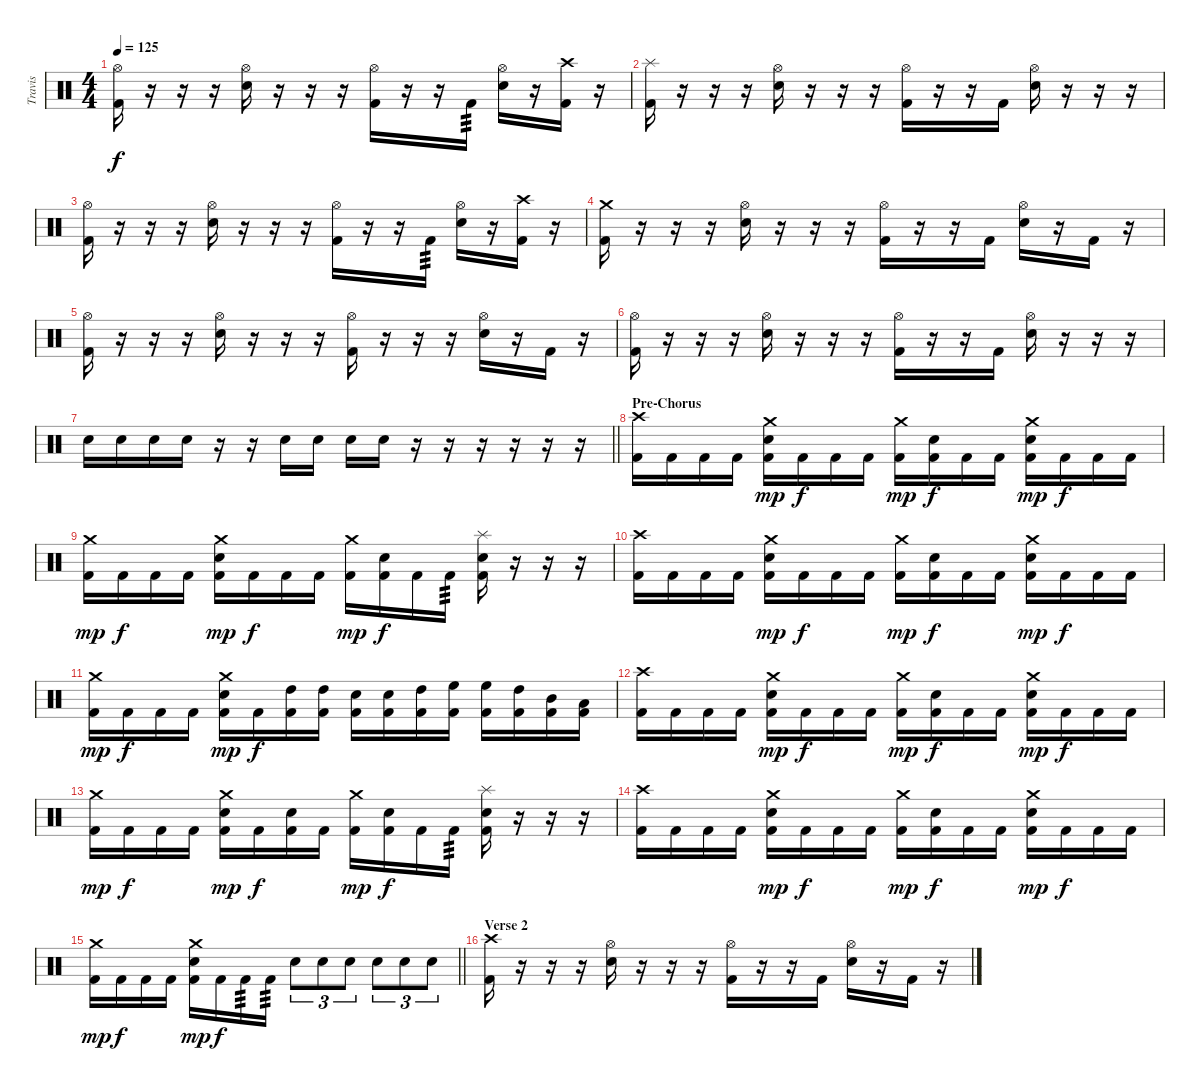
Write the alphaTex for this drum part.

\track ("Travis" "Travis") {instrument percussion}
\staff {score}
\articulation defaults
\ts (4 4)
\tempo 125
\clef neutral
\ks c
("Kick (hit) 2" "Hi-Hat (open)").16{dy f} r.16 r.16 r.16 ("Electric Snare (hit)" "Hi-Hat (open)").16 r.16 r.16 r.16 ("Kick (hit) 2" "Hi-Hat (open)").16 r.16 r.16 "Kick (hit) 2".16{tp 3} ("Electric Snare (hit)" "Hi-Hat (open)").16 r.16 ("Kick (hit) 2" "Crash high (hit)").16 r.16 |
("Splash (hit)" "Kick (hit) 2").16 r.16 r.16 r.16 ("Electric Snare (hit)" "Hi-Hat (open)").16 r.16 r.16 r.16 ("Kick (hit) 2" "Hi-Hat (open)").16 r.16 r.16 "Kick (hit) 2".16 ("Electric Snare (hit)" "Hi-Hat (open)").16 r.16 r.16 r.16 |
("Kick (hit) 2" "Hi-Hat (open)").16 r.16 r.16 r.16 ("Electric Snare (hit)" "Hi-Hat (open)").16 r.16 r.16 r.16 ("Kick (hit) 2" "Hi-Hat (open)").16 r.16 r.16 "Kick (hit) 2".16{tp 3} ("Electric Snare (hit)" "Hi-Hat (open)").16 r.16 ("Kick (hit) 2" "Crash high (hit)").16 r.16 |
("Kick (hit) 2" "Crash medium (hit)").16 r.16 r.16 r.16 ("Electric Snare (hit)" "Hi-Hat (open)").16 r.16 r.16 r.16 ("Kick (hit) 2" "Hi-Hat (open)").16 r.16 r.16 "Kick (hit) 2".16 ("Electric Snare (hit)" "Hi-Hat (open)").16 r.16 "Kick (hit) 2".16 r.16 |
("Kick (hit) 2" "Hi-Hat (open)").16 r.16 r.16 r.16 ("Electric Snare (hit)" "Hi-Hat (open)").16 r.16 r.16 r.16 ("Kick (hit) 2" "Hi-Hat (open)").16 r.16 r.16 r.16 ("Electric Snare (hit)" "Hi-Hat (open)").16 r.16 "Kick (hit) 2".16 r.16 |
("Kick (hit) 2" "Hi-Hat (open)").16 r.16 r.16 r.16 ("Electric Snare (hit)" "Hi-Hat (open)").16 r.16 r.16 r.16 ("Kick (hit) 2" "Hi-Hat (open)").16 r.16 r.16 "Kick (hit) 2".16 ("Electric Snare (hit)" "Hi-Hat (open)").16 r.16 r.16 r.16 |
\barLineRight lightlight "Electric Snare (hit)".16 "Electric Snare (hit)".16 "Electric Snare (hit)".16 "Electric Snare (hit)".16
r.16 r.16 "Electric Snare (hit)".16 "Electric Snare (hit)".16 "Electric Snare (hit)".16 "Electric Snare (hit)".16 r.16 r.16 r.16 r.16 r.16 r.16 |
\section ("" "Pre-Chorus")
("Crash high (hit)" "Kick (hit) 2").16 "Kick (hit) 2".16 "Kick (hit) 2".16 "Kick (hit) 2".16 ("Crash medium (hit)" "Electric Snare (hit)" "Kick (hit) 2").16{dy mp} "Kick (hit) 2".16{dy f} "Kick (hit) 2".16 "Kick (hit) 2".16 ("Crash medium (hit)" "Kick (hit) 2").16{dy mp} ("Electric Snare (hit)" "Kick (hit) 2").16{dy f} "Kick (hit) 2".16 "Kick (hit) 2".16 ("Crash medium (hit)" "Electric Snare (hit)" "Kick (hit) 2").16{dy mp} "Kick (hit) 2".16{dy f} "Kick (hit) 2".16 "Kick (hit) 2".16 |
("Crash medium (hit)" "Kick (hit) 2").16{dy mp} "Kick (hit) 2".16{dy f} "Kick (hit) 2".16 "Kick (hit) 2".16 ("Crash medium (hit)" "Electric Snare (hit)" "Kick (hit) 2").16{dy mp} "Kick (hit) 2".16{dy f} "Kick (hit) 2".16 "Kick (hit) 2".16 ("Crash medium (hit)" "Kick (hit) 2").16{dy mp} ("Electric Snare (hit)" "Kick (hit) 2").16{dy f} "Kick (hit) 2".16 "Kick (hit) 2".16{tp 3} ("Splash (hit)" "Electric Snare (hit)" "Kick (hit) 2").16 r.16 r.16 r.16 |
("Crash high (hit)" "Kick (hit) 2").16 "Kick (hit) 2".16 "Kick (hit) 2".16 "Kick (hit) 2".16 ("Crash medium (hit)" "Electric Snare (hit)" "Kick (hit) 2").16{dy mp} "Kick (hit) 2".16{dy f} "Kick (hit) 2".16 "Kick (hit) 2".16 ("Crash medium (hit)" "Kick (hit) 2").16{dy mp} ("Electric Snare (hit)" "Kick (hit) 2").16{dy f} "Kick (hit) 2".16 "Kick (hit) 2".16 ("Crash medium (hit)" "Electric Snare (hit)" "Kick (hit) 2").16{dy mp} "Kick (hit) 2".16{dy f} "Kick (hit) 2".16 "Kick (hit) 2".16 |
("Crash medium (hit)" "Kick (hit) 2").16{dy mp} "Kick (hit) 2".16{dy f} "Kick (hit) 2".16 "Kick (hit) 2".16 ("Crash medium (hit)" "Electric Snare (hit)" "Kick (hit) 2").16{dy mp} "Kick (hit) 2".16{dy f} ("High Tom (hit)" "Kick (hit) 2").16 ("High Tom (hit)" "Kick (hit) 2").16 ("Electric Snare (hit)" "Kick (hit) 2").16 ("Electric Snare (hit)" "Kick (hit) 2").16 ("High Tom (hit)" "Kick (hit) 2").16 ("High Floor Tom (hit)" "Kick (hit) 2").16 ("High Floor Tom (hit)" "Kick (hit) 2").16 ("High Tom (hit)" "Kick (hit) 2").16 ("Mid Tom (hit)" "Kick (hit) 2").16 ("Low Tom (hit)" "Kick (hit) 2").16 |
("Crash high (hit)" "Kick (hit) 2").16 "Kick (hit) 2".16 "Kick (hit) 2".16 "Kick (hit) 2".16 ("Crash medium (hit)" "Electric Snare (hit)" "Kick (hit) 2").16{dy mp} "Kick (hit) 2".16{dy f} "Kick (hit) 2".16 "Kick (hit) 2".16 ("Crash medium (hit)" "Kick (hit) 2").16{dy mp} ("Electric Snare (hit)" "Kick (hit) 2").16{dy f} "Kick (hit) 2".16 "Kick (hit) 2".16 ("Crash medium (hit)" "Electric Snare (hit)" "Kick (hit) 2").16{dy mp} "Kick (hit) 2".16{dy f} "Kick (hit) 2".16 "Kick (hit) 2".16 |
("Crash medium (hit)" "Kick (hit) 2").16{dy mp} "Kick (hit) 2".16{dy f} "Kick (hit) 2".16 "Kick (hit) 2".16 ("Crash medium (hit)" "Electric Snare (hit)" "Kick (hit) 2").16{dy mp} "Kick (hit) 2".16{dy f} ("Electric Snare (hit)" "Kick (hit) 2").16 "Kick (hit) 2".16 ("Crash medium (hit)" "Kick (hit) 2").16{dy mp} ("Electric Snare (hit)" "Kick (hit) 2").16{dy f} "Kick (hit) 2".16 "Kick (hit) 2".16{tp 3} ("Splash (hit)" "Electric Snare (hit)" "Kick (hit) 2").16 r.16 r.16 r.16 |
("Crash high (hit)" "Kick (hit) 2").16 "Kick (hit) 2".16 "Kick (hit) 2".16 "Kick (hit) 2".16 ("Crash medium (hit)" "Electric Snare (hit)" "Kick (hit) 2").16{dy mp} "Kick (hit) 2".16{dy f} "Kick (hit) 2".16 "Kick (hit) 2".16 ("Crash medium (hit)" "Kick (hit) 2").16{dy mp} ("Electric Snare (hit)" "Kick (hit) 2").16{dy f} "Kick (hit) 2".16 "Kick (hit) 2".16 ("Crash medium (hit)" "Electric Snare (hit)" "Kick (hit) 2").16{dy mp} "Kick (hit) 2".16{dy f} "Kick (hit) 2".16 "Kick (hit) 2".16 |
\barLineRight lightlight
("Crash medium (hit)" "Kick (hit) 2").16{dy mp} "Kick (hit) 2".16{dy f} "Kick (hit) 2".16 "Kick (hit) 2".16 ("Crash medium (hit)" "Electric Snare (hit)" "Kick (hit) 2").16{dy mp} "Kick (hit) 2".16{dy f} "Kick (hit) 2".16{tp 3} "Kick (hit) 2".16{tp 3} "Electric Snare (hit)".8{tu (3 2)} "Electric Snare (hit)".8{tu (3 2)} "Electric Snare (hit)".8{tu (3 2)} "Electric Snare (hit)".8{tu (3 2)} "Electric Snare (hit)".8{tu (3 2)} "Electric Snare (hit)".8{tu (3 2)} |
\section ("" "Verse 2")
("Kick (hit) 2" "Crash high (hit)").16 r.16 r.16 r.16 ("Electric Snare (hit)" "Hi-Hat (open)").16 r.16 r.16 r.16 ("Kick (hit) 2" "Hi-Hat (open)").16 r.16 r.16 "Kick (hit) 2".16 ("Electric Snare (hit)" "Hi-Hat (open)").16 r.16 "Kick (hit) 2".16 r.16
